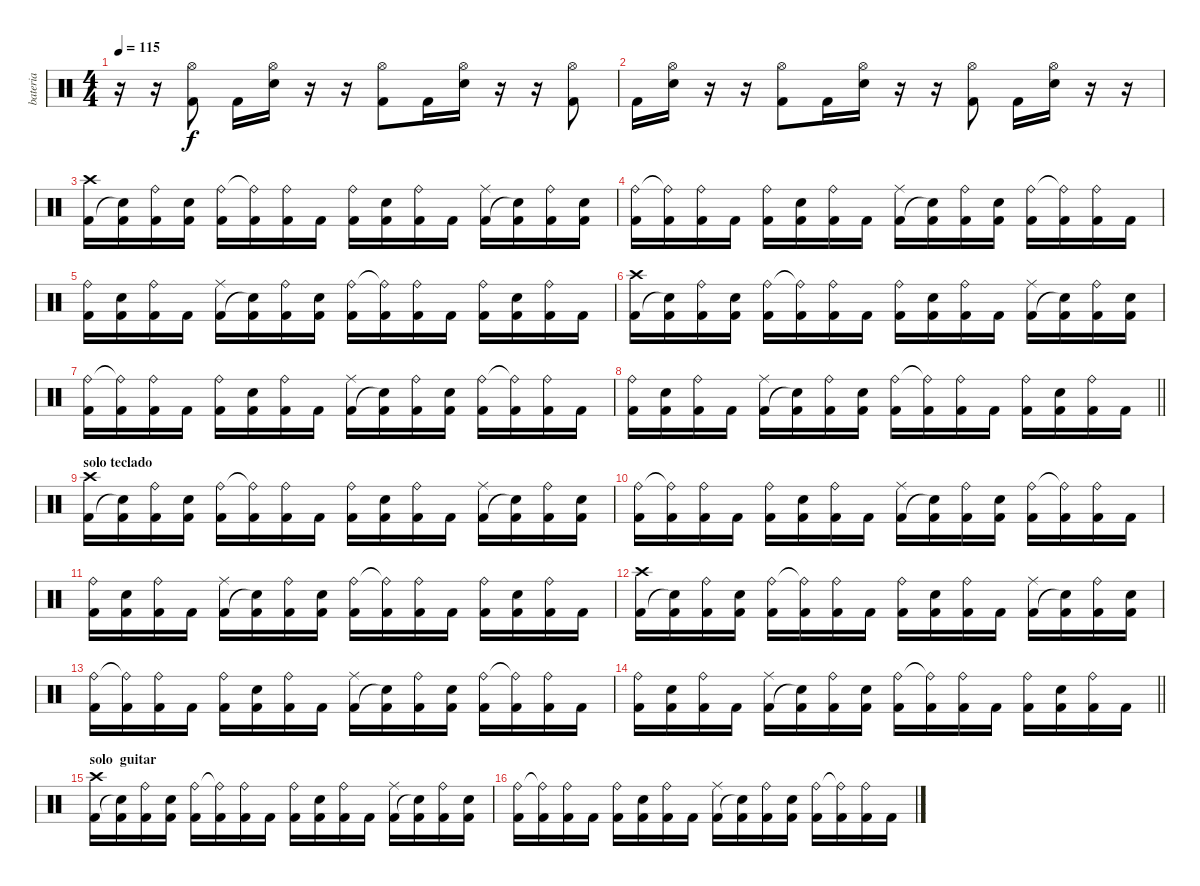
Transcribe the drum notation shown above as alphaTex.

\track ("bateria" "bateria") {instrument percussion}
\staff {score}
\articulation defaults
\ts (4 4)
\tempo 115
\clef neutral
\ks c
r.16{dy f} r.16 ("Kick (hit) 2" "Hi-Hat (open)").8 "Kick (hit) 2".16 ("Hi-Hat (open)" "Electric Snare (hit)").16 r.16 r.16 ("Kick (hit) 2" "Hi-Hat (open)").8 "Kick (hit) 2".16 ("Hi-Hat (open)" "Electric Snare (hit)").16 r.16 r.16 ("Kick (hit) 2" "Hi-Hat (open)").8 |
"Kick (hit) 2".16 ("Electric Snare (hit)" "Hi-Hat (open)").16 r.16 r.16 ("Kick (hit) 2" "Hi-Hat (open)").8 "Kick (hit) 2".16 ("Hi-Hat (open)" "Electric Snare (hit)").16 r.16 r.16 ("Kick (hit) 2" "Hi-Hat (open)").8 "Kick (hit) 2".16 ("Hi-Hat (open)" "Electric Snare (hit)").16 r.16 r.16 |
("Crash high (hit)" "Kick (hit) 2").16 ("Kick (hit) 2" "Snare (hit)"{t}).16 ("Ride (bell)" "Kick (hit) 2").16 ("Electric Snare (hit)" "Kick (hit) 2").16 ("Ride (bell)" "Kick (hit) 2").16 ("Ride (bell)"{t} "Kick (hit) 2").16 ("Kick (hit) 2" "Ride (bell)").16 "Kick (hit) 2".16 ("Ride (bell)" "Kick (hit) 2").16 ("Electric Snare (hit)" "Kick (hit) 2").16 ("Kick (hit) 2" "Ride (bell)").16 "Kick (hit) 2".16 ("Ride (middle)" "Kick (hit) 2").16 ("Kick (hit) 2" "Snare (hit)"{t}).16 ("Ride (bell)" "Kick (hit) 2").16 ("Electric Snare (hit)" "Kick (hit) 2").16 |
("Ride (bell)" "Kick (hit) 2").16 ("Ride (bell)"{t} "Kick (hit) 2").16 ("Kick (hit) 2" "Ride (bell)").16 "Kick (hit) 2".16 ("Ride (bell)" "Kick (hit) 2").16 ("Electric Snare (hit)" "Kick (hit) 2").16 ("Kick (hit) 2" "Ride (bell)").16 "Kick (hit) 2".16 ("Ride (middle)" "Kick (hit) 2").16 ("Kick (hit) 2" "Snare (hit)"{t}).16 ("Ride (bell)" "Kick (hit) 2").16 ("Electric Snare (hit)" "Kick (hit) 2").16 ("Ride (bell)" "Kick (hit) 2").16 ("Ride (bell)"{t} "Kick (hit) 2").16 ("Kick (hit) 2" "Ride (bell)").16 "Kick (hit) 2".16 |
("Ride (bell)" "Kick (hit) 2").16 ("Electric Snare (hit)" "Kick (hit) 2").16 ("Kick (hit) 2" "Ride (bell)").16 "Kick (hit) 2".16 ("Ride (middle)" "Kick (hit) 2").16 ("Kick (hit) 2" "Snare (hit)"{t}).16 ("Ride (bell)" "Kick (hit) 2").16 ("Electric Snare (hit)" "Kick (hit) 2").16 ("Ride (bell)" "Kick (hit) 2").16 ("Ride (bell)"{t} "Kick (hit) 2").16 ("Kick (hit) 2" "Ride (bell)").16 "Kick (hit) 2".16 ("Kick (hit) 2" "Ride (bell)").16 ("Kick (hit) 2" "Electric Snare (hit)").16 ("Kick (hit) 2" "Ride (bell)").16 "Kick (hit) 2".16 |
("Crash high (hit)" "Kick (hit) 2").16 ("Kick (hit) 2" "Snare (hit)"{t}).16 ("Ride (bell)" "Kick (hit) 2").16 ("Electric Snare (hit)" "Kick (hit) 2").16 ("Ride (bell)" "Kick (hit) 2").16 ("Ride (bell)"{t} "Kick (hit) 2").16 ("Kick (hit) 2" "Ride (bell)").16 "Kick (hit) 2".16 ("Ride (bell)" "Kick (hit) 2").16 ("Electric Snare (hit)" "Kick (hit) 2").16 ("Kick (hit) 2" "Ride (bell)").16 "Kick (hit) 2".16 ("Ride (middle)" "Kick (hit) 2").16 ("Kick (hit) 2" "Snare (hit)"{t}).16 ("Ride (bell)" "Kick (hit) 2").16 ("Electric Snare (hit)" "Kick (hit) 2").16 |
("Ride (bell)" "Kick (hit) 2").16 ("Ride (bell)"{t} "Kick (hit) 2").16 ("Kick (hit) 2" "Ride (bell)").16 "Kick (hit) 2".16 ("Ride (bell)" "Kick (hit) 2").16 ("Electric Snare (hit)" "Kick (hit) 2").16 ("Kick (hit) 2" "Ride (bell)").16 "Kick (hit) 2".16 ("Ride (middle)" "Kick (hit) 2").16 ("Kick (hit) 2" "Snare (hit)"{t}).16 ("Ride (bell)" "Kick (hit) 2").16 ("Electric Snare (hit)" "Kick (hit) 2").16 ("Ride (bell)" "Kick (hit) 2").16 ("Ride (bell)"{t} "Kick (hit) 2").16 ("Kick (hit) 2" "Ride (bell)").16 "Kick (hit) 2".16 |
\barLineRight lightlight
("Ride (bell)" "Kick (hit) 2").16 ("Electric Snare (hit)" "Kick (hit) 2").16 ("Kick (hit) 2" "Ride (bell)").16 "Kick (hit) 2".16 ("Ride (middle)" "Kick (hit) 2").16 ("Kick (hit) 2" "Snare (hit)"{t}).16 ("Ride (bell)" "Kick (hit) 2").16 ("Electric Snare (hit)" "Kick (hit) 2").16 ("Ride (bell)" "Kick (hit) 2").16 ("Ride (bell)"{t} "Kick (hit) 2").16 ("Kick (hit) 2" "Ride (bell)").16 "Kick (hit) 2".16 ("Kick (hit) 2" "Ride (bell)").16 ("Kick (hit) 2" "Electric Snare (hit)").16 ("Kick (hit) 2" "Ride (bell)").16 "Kick (hit) 2".16 |
\section ("" "solo teclado")
("Crash high (hit)" "Kick (hit) 2").16 ("Kick (hit) 2" "Snare (hit)"{t}).16 ("Ride (bell)" "Kick (hit) 2").16 ("Electric Snare (hit)" "Kick (hit) 2").16 ("Ride (bell)" "Kick (hit) 2").16 ("Ride (bell)"{t} "Kick (hit) 2").16 ("Kick (hit) 2" "Ride (bell)").16 "Kick (hit) 2".16 ("Ride (bell)" "Kick (hit) 2").16 ("Electric Snare (hit)" "Kick (hit) 2").16 ("Kick (hit) 2" "Ride (bell)").16 "Kick (hit) 2".16 ("Ride (middle)" "Kick (hit) 2").16 ("Kick (hit) 2" "Snare (hit)"{t}).16 ("Ride (bell)" "Kick (hit) 2").16 ("Electric Snare (hit)" "Kick (hit) 2").16 |
("Ride (bell)" "Kick (hit) 2").16 ("Ride (bell)"{t} "Kick (hit) 2").16 ("Kick (hit) 2" "Ride (bell)").16 "Kick (hit) 2".16 ("Ride (bell)" "Kick (hit) 2").16 ("Electric Snare (hit)" "Kick (hit) 2").16 ("Kick (hit) 2" "Ride (bell)").16 "Kick (hit) 2".16 ("Ride (middle)" "Kick (hit) 2").16 ("Kick (hit) 2" "Snare (hit)"{t}).16 ("Ride (bell)" "Kick (hit) 2").16 ("Electric Snare (hit)" "Kick (hit) 2").16 ("Ride (bell)" "Kick (hit) 2").16 ("Ride (bell)"{t} "Kick (hit) 2").16 ("Kick (hit) 2" "Ride (bell)").16 "Kick (hit) 2".16 |
("Ride (bell)" "Kick (hit) 2").16 ("Electric Snare (hit)" "Kick (hit) 2").16 ("Kick (hit) 2" "Ride (bell)").16 "Kick (hit) 2".16 ("Ride (middle)" "Kick (hit) 2").16 ("Kick (hit) 2" "Snare (hit)"{t}).16 ("Ride (bell)" "Kick (hit) 2").16 ("Electric Snare (hit)" "Kick (hit) 2").16 ("Ride (bell)" "Kick (hit) 2").16 ("Ride (bell)"{t} "Kick (hit) 2").16 ("Kick (hit) 2" "Ride (bell)").16 "Kick (hit) 2".16 ("Kick (hit) 2" "Ride (bell)").16 ("Kick (hit) 2" "Electric Snare (hit)").16 ("Kick (hit) 2" "Ride (bell)").16 "Kick (hit) 2".16 |
("Crash high (hit)" "Kick (hit) 2").16 ("Kick (hit) 2" "Snare (hit)"{t}).16 ("Ride (bell)" "Kick (hit) 2").16 ("Electric Snare (hit)" "Kick (hit) 2").16 ("Ride (bell)" "Kick (hit) 2").16 ("Ride (bell)"{t} "Kick (hit) 2").16 ("Kick (hit) 2" "Ride (bell)").16 "Kick (hit) 2".16 ("Ride (bell)" "Kick (hit) 2").16 ("Electric Snare (hit)" "Kick (hit) 2").16 ("Kick (hit) 2" "Ride (bell)").16 "Kick (hit) 2".16 ("Ride (middle)" "Kick (hit) 2").16 ("Kick (hit) 2" "Snare (hit)"{t}).16 ("Ride (bell)" "Kick (hit) 2").16 ("Electric Snare (hit)" "Kick (hit) 2").16 |
("Ride (bell)" "Kick (hit) 2").16 ("Ride (bell)"{t} "Kick (hit) 2").16 ("Kick (hit) 2" "Ride (bell)").16 "Kick (hit) 2".16 ("Ride (bell)" "Kick (hit) 2").16 ("Electric Snare (hit)" "Kick (hit) 2").16 ("Kick (hit) 2" "Ride (bell)").16 "Kick (hit) 2".16 ("Ride (middle)" "Kick (hit) 2").16 ("Kick (hit) 2" "Snare (hit)"{t}).16 ("Ride (bell)" "Kick (hit) 2").16 ("Electric Snare (hit)" "Kick (hit) 2").16 ("Ride (bell)" "Kick (hit) 2").16 ("Ride (bell)"{t} "Kick (hit) 2").16 ("Kick (hit) 2" "Ride (bell)").16 "Kick (hit) 2".16 |
\barLineRight lightlight
("Ride (bell)" "Kick (hit) 2").16 ("Electric Snare (hit)" "Kick (hit) 2").16 ("Kick (hit) 2" "Ride (bell)").16 "Kick (hit) 2".16 ("Ride (middle)" "Kick (hit) 2").16 ("Kick (hit) 2" "Snare (hit)"{t}).16 ("Ride (bell)" "Kick (hit) 2").16 ("Electric Snare (hit)" "Kick (hit) 2").16 ("Ride (bell)" "Kick (hit) 2").16 ("Ride (bell)"{t} "Kick (hit) 2").16 ("Kick (hit) 2" "Ride (bell)").16 "Kick (hit) 2".16 ("Kick (hit) 2" "Ride (bell)").16 ("Kick (hit) 2" "Electric Snare (hit)").16 ("Kick (hit) 2" "Ride (bell)").16 "Kick (hit) 2".16 |
\section ("" "solo  guitar")
("Crash high (hit)" "Kick (hit) 2").16 ("Kick (hit) 2" "Snare (hit)"{t}).16 ("Ride (bell)" "Kick (hit) 2").16 ("Electric Snare (hit)" "Kick (hit) 2").16 ("Ride (bell)" "Kick (hit) 2").16 ("Ride (bell)"{t} "Kick (hit) 2").16 ("Kick (hit) 2" "Ride (bell)").16 "Kick (hit) 2".16 ("Ride (bell)" "Kick (hit) 2").16 ("Electric Snare (hit)" "Kick (hit) 2").16 ("Kick (hit) 2" "Ride (bell)").16 "Kick (hit) 2".16 ("Ride (middle)" "Kick (hit) 2").16 ("Kick (hit) 2" "Snare (hit)"{t}).16 ("Ride (bell)" "Kick (hit) 2").16 ("Electric Snare (hit)" "Kick (hit) 2").16 |
("Ride (bell)" "Kick (hit) 2").16 ("Ride (bell)"{t} "Kick (hit) 2").16 ("Kick (hit) 2" "Ride (bell)").16 "Kick (hit) 2".16 ("Ride (bell)" "Kick (hit) 2").16 ("Electric Snare (hit)" "Kick (hit) 2").16 ("Kick (hit) 2" "Ride (bell)").16 "Kick (hit) 2".16 ("Ride (middle)" "Kick (hit) 2").16 ("Kick (hit) 2" "Snare (hit)"{t}).16 ("Ride (bell)" "Kick (hit) 2").16 ("Electric Snare (hit)" "Kick (hit) 2").16 ("Ride (bell)" "Kick (hit) 2").16 ("Ride (bell)"{t} "Kick (hit) 2").16 ("Kick (hit) 2" "Ride (bell)").16 "Kick (hit) 2".16
